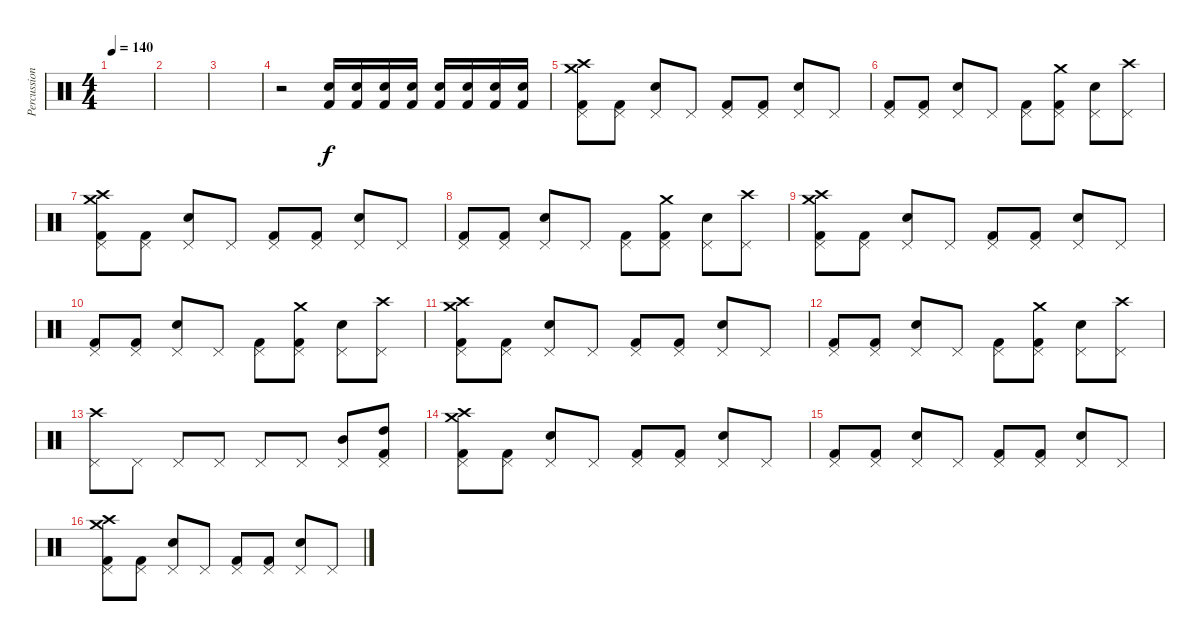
\track ("Percussion" "Percussion") {instrument percussion}
\staff {score}
\articulation defaults
\ts (4 4)
\tempo 140
\clef neutral
\ks c
|
|
|
r.2 ("Electric Snare (hit)" "Kick (hit) 2").16 ("Electric Snare (hit)" "Kick (hit) 2").16 ("Electric Snare (hit)" "Kick (hit) 2").16 ("Electric Snare (hit)" "Kick (hit) 2").16 ("Electric Snare (hit)" "Kick (hit) 2").16 ("Electric Snare (hit)" "Kick (hit) 2").16 ("Electric Snare (hit)" "Kick (hit) 2").16 ("Electric Snare (hit)" "Kick (hit) 2").16 |
("Pedal Hi-Hat (hit)" "Kick (hit) 2" "Crash high (hit)" "Crash medium (hit)").8 ("Pedal Hi-Hat (hit)" "Kick (hit) 2").8 ("Pedal Hi-Hat (hit)" "Electric Snare (hit)").8 "Pedal Hi-Hat (hit)".8 ("Pedal Hi-Hat (hit)" "Kick (hit) 2").8 ("Pedal Hi-Hat (hit)" "Kick (hit) 2").8 ("Pedal Hi-Hat (hit)" "Electric Snare (hit)").8 "Pedal Hi-Hat (hit)".8 |
("Pedal Hi-Hat (hit)" "Kick (hit) 2").8 ("Pedal Hi-Hat (hit)" "Kick (hit) 2").8 ("Pedal Hi-Hat (hit)" "Electric Snare (hit)").8 "Pedal Hi-Hat (hit)".8 ("Pedal Hi-Hat (hit)" "Kick (hit) 2").8 ("Pedal Hi-Hat (hit)" "Kick (hit) 2" "Crash medium (hit)").8 ("Pedal Hi-Hat (hit)" "Electric Snare (hit)").8 ("Pedal Hi-Hat (hit)" "Crash high (hit)").8 |
("Pedal Hi-Hat (hit)" "Kick (hit) 2" "Crash high (hit)" "Crash medium (hit)").8 ("Pedal Hi-Hat (hit)" "Kick (hit) 2").8 ("Pedal Hi-Hat (hit)" "Electric Snare (hit)").8 "Pedal Hi-Hat (hit)".8 ("Pedal Hi-Hat (hit)" "Kick (hit) 2").8 ("Pedal Hi-Hat (hit)" "Kick (hit) 2").8 ("Pedal Hi-Hat (hit)" "Electric Snare (hit)").8 "Pedal Hi-Hat (hit)".8 |
("Pedal Hi-Hat (hit)" "Kick (hit) 2").8 ("Pedal Hi-Hat (hit)" "Kick (hit) 2").8 ("Pedal Hi-Hat (hit)" "Electric Snare (hit)").8 "Pedal Hi-Hat (hit)".8 ("Pedal Hi-Hat (hit)" "Kick (hit) 2").8 ("Pedal Hi-Hat (hit)" "Kick (hit) 2" "Crash medium (hit)").8 ("Pedal Hi-Hat (hit)" "Electric Snare (hit)").8 ("Pedal Hi-Hat (hit)" "Crash high (hit)").8 |
("Pedal Hi-Hat (hit)" "Kick (hit) 2" "Crash high (hit)" "Crash medium (hit)").8 ("Pedal Hi-Hat (hit)" "Kick (hit) 2").8 ("Pedal Hi-Hat (hit)" "Electric Snare (hit)").8 "Pedal Hi-Hat (hit)".8 ("Pedal Hi-Hat (hit)" "Kick (hit) 2").8 ("Pedal Hi-Hat (hit)" "Kick (hit) 2").8 ("Pedal Hi-Hat (hit)" "Electric Snare (hit)").8 "Pedal Hi-Hat (hit)".8 |
("Pedal Hi-Hat (hit)" "Kick (hit) 2").8 ("Pedal Hi-Hat (hit)" "Kick (hit) 2").8 ("Pedal Hi-Hat (hit)" "Electric Snare (hit)").8 "Pedal Hi-Hat (hit)".8 ("Pedal Hi-Hat (hit)" "Kick (hit) 2").8 ("Pedal Hi-Hat (hit)" "Kick (hit) 2" "Crash medium (hit)").8 ("Pedal Hi-Hat (hit)" "Electric Snare (hit)").8 ("Pedal Hi-Hat (hit)" "Crash high (hit)").8 |
("Pedal Hi-Hat (hit)" "Kick (hit) 2" "Crash high (hit)" "Crash medium (hit)").8 ("Pedal Hi-Hat (hit)" "Kick (hit) 2").8 ("Pedal Hi-Hat (hit)" "Electric Snare (hit)").8 "Pedal Hi-Hat (hit)".8 ("Pedal Hi-Hat (hit)" "Kick (hit) 2").8 ("Pedal Hi-Hat (hit)" "Kick (hit) 2").8 ("Pedal Hi-Hat (hit)" "Electric Snare (hit)").8 "Pedal Hi-Hat (hit)".8 |
("Pedal Hi-Hat (hit)" "Kick (hit) 2").8 ("Pedal Hi-Hat (hit)" "Kick (hit) 2").8 ("Pedal Hi-Hat (hit)" "Electric Snare (hit)").8 "Pedal Hi-Hat (hit)".8 ("Pedal Hi-Hat (hit)" "Kick (hit) 2").8 ("Pedal Hi-Hat (hit)" "Kick (hit) 2" "Crash medium (hit)").8 ("Pedal Hi-Hat (hit)" "Electric Snare (hit)").8 ("Pedal Hi-Hat (hit)" "Crash high (hit)").8 |
("Pedal Hi-Hat (hit)" "Crash high (hit)").8 "Pedal Hi-Hat (hit)".8 "Pedal Hi-Hat (hit)".8 "Pedal Hi-Hat (hit)".8 "Pedal Hi-Hat (hit)".8 "Pedal Hi-Hat (hit)".8 ("Pedal Hi-Hat (hit)" "Mid Tom (hit)").8 ("Pedal Hi-Hat (hit)" "High Tom (hit)" "Kick (hit) 2").8 |
("Pedal Hi-Hat (hit)" "Kick (hit) 2" "Crash high (hit)" "Crash medium (hit)").8 ("Pedal Hi-Hat (hit)" "Kick (hit) 2").8 ("Pedal Hi-Hat (hit)" "Electric Snare (hit)").8 "Pedal Hi-Hat (hit)".8 ("Pedal Hi-Hat (hit)" "Kick (hit) 2").8 ("Pedal Hi-Hat (hit)" "Kick (hit) 2").8 ("Pedal Hi-Hat (hit)" "Electric Snare (hit)").8 "Pedal Hi-Hat (hit)".8 |
("Pedal Hi-Hat (hit)" "Kick (hit) 2").8 ("Pedal Hi-Hat (hit)" "Kick (hit) 2").8 ("Pedal Hi-Hat (hit)" "Electric Snare (hit)").8 "Pedal Hi-Hat (hit)".8 ("Pedal Hi-Hat (hit)" "Kick (hit) 2").8 ("Pedal Hi-Hat (hit)" "Kick (hit) 2").8 ("Pedal Hi-Hat (hit)" "Electric Snare (hit)").8 "Pedal Hi-Hat (hit)".8 |
("Pedal Hi-Hat (hit)" "Kick (hit) 2" "Crash high (hit)" "Crash medium (hit)").8 ("Pedal Hi-Hat (hit)" "Kick (hit) 2").8 ("Pedal Hi-Hat (hit)" "Electric Snare (hit)").8 "Pedal Hi-Hat (hit)".8 ("Pedal Hi-Hat (hit)" "Kick (hit) 2").8 ("Pedal Hi-Hat (hit)" "Kick (hit) 2").8 ("Pedal Hi-Hat (hit)" "Electric Snare (hit)").8 "Pedal Hi-Hat (hit)".8
